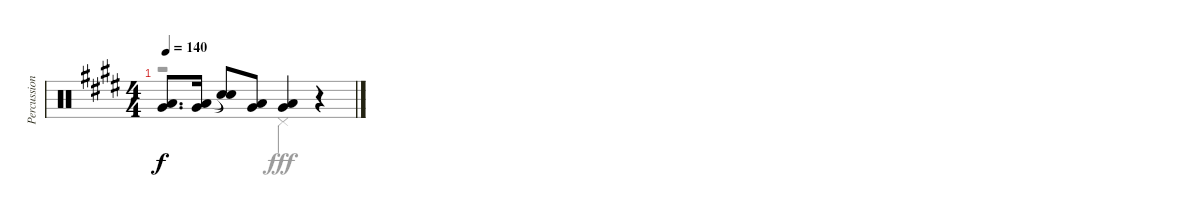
\track ("Percussion" "Percussion") {instrument percussion}
\staff {score}
\articulation defaults
\voice
\ts (4 4)
\tempo 140
\clef neutral
\ks e
("Low Tom (hit)" "Very Low Tom (hit)").8{d dy f} ("Low Tom (hit)" "Very Low Tom (hit)").16 ("Snare (hit)"{t} "Snare (hit)"{t}).8 ("Low Tom (hit)" "Very Low Tom (hit)").8 ("Low Tom (hit)" "Very Low Tom (hit)").4 r.4
\voice
\clef neutral
\ottava regular
\simile none
\ks e
r.2{dy fff} "Pedal Hi-Hat (hit)".4 r.4
